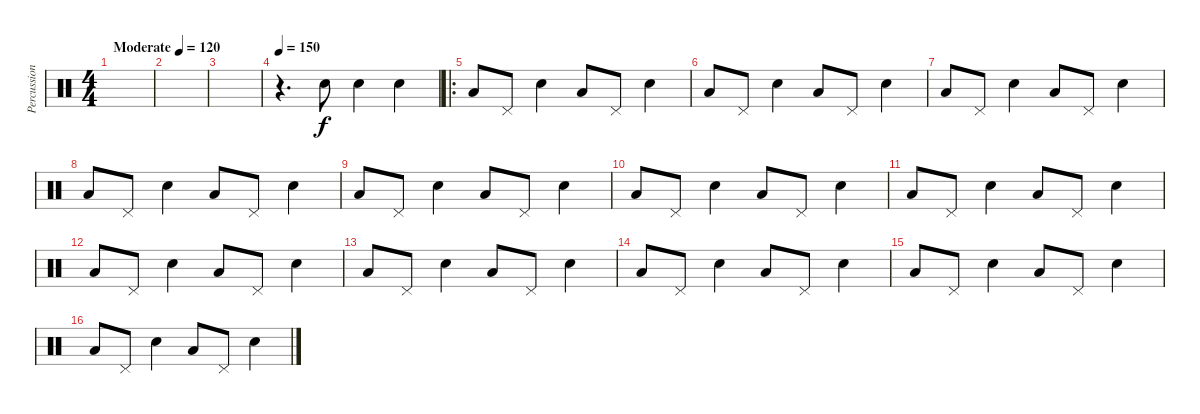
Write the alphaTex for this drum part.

\track ("Percussions" "Percussion") {instrument percussion}
\staff {score}
\articulation defaults
\ts (4 4)
\tempo (120 "Moderate")
\clef neutral
\ks c
|
|
|
\tempo 150
r.4{d} "Snare (hit) 2".8 "Snare (hit) 2".4 "Snare (hit) 2".4 |
\ro "Low Floor Tom (hit)".8 "Pedal Hi-Hat (hit)".8 "Snare (hit) 2".4 "Low Floor Tom (hit)".8 "Pedal Hi-Hat (hit)".8 "Snare (hit) 2".4
|
"Low Floor Tom (hit)".8 "Pedal Hi-Hat (hit)".8 "Snare (hit) 2".4 "Low Floor Tom (hit)".8 "Pedal Hi-Hat (hit)".8 "Snare (hit) 2".4 |
"Low Floor Tom (hit)".8 "Pedal Hi-Hat (hit)".8 "Snare (hit) 2".4 "Low Floor Tom (hit)".8 "Pedal Hi-Hat (hit)".8 "Snare (hit) 2".4 |
"Low Floor Tom (hit)".8 "Pedal Hi-Hat (hit)".8 "Snare (hit) 2".4 "Low Floor Tom (hit)".8 "Pedal Hi-Hat (hit)".8 "Snare (hit) 2".4 |
"Low Floor Tom (hit)".8 "Pedal Hi-Hat (hit)".8 "Snare (hit) 2".4 "Low Floor Tom (hit)".8 "Pedal Hi-Hat (hit)".8 "Snare (hit) 2".4 |
"Low Floor Tom (hit)".8 "Pedal Hi-Hat (hit)".8 "Snare (hit) 2".4 "Low Floor Tom (hit)".8 "Pedal Hi-Hat (hit)".8 "Snare (hit) 2".4 |
"Low Floor Tom (hit)".8 "Pedal Hi-Hat (hit)".8 "Snare (hit) 2".4 "Low Floor Tom (hit)".8 "Pedal Hi-Hat (hit)".8 "Snare (hit) 2".4 |
"Low Floor Tom (hit)".8 "Pedal Hi-Hat (hit)".8 "Snare (hit) 2".4 "Low Floor Tom (hit)".8 "Pedal Hi-Hat (hit)".8 "Snare (hit) 2".4 |
"Low Floor Tom (hit)".8 "Pedal Hi-Hat (hit)".8 "Snare (hit) 2".4 "Low Floor Tom (hit)".8 "Pedal Hi-Hat (hit)".8 "Snare (hit) 2".4 |
"Low Floor Tom (hit)".8 "Pedal Hi-Hat (hit)".8 "Snare (hit) 2".4 "Low Floor Tom (hit)".8 "Pedal Hi-Hat (hit)".8 "Snare (hit) 2".4 |
"Low Floor Tom (hit)".8 "Pedal Hi-Hat (hit)".8 "Snare (hit) 2".4 "Low Floor Tom (hit)".8 "Pedal Hi-Hat (hit)".8 "Snare (hit) 2".4 |
"Low Floor Tom (hit)".8 "Pedal Hi-Hat (hit)".8 "Snare (hit) 2".4 "Low Floor Tom (hit)".8 "Pedal Hi-Hat (hit)".8 "Snare (hit) 2".4
